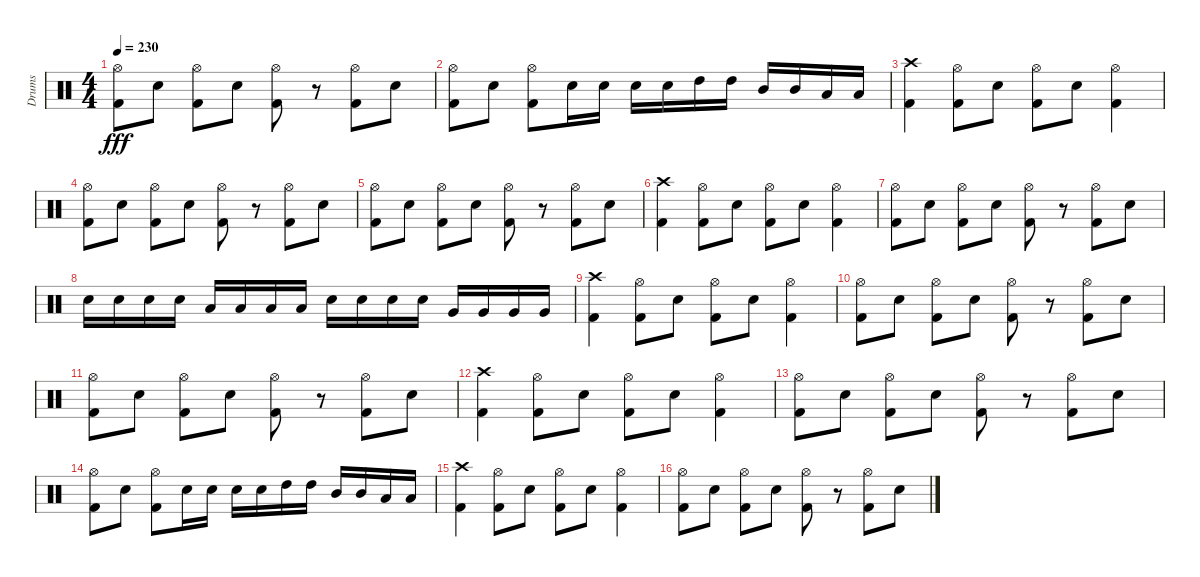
\track ("Drums" "Drums") {instrument percussion}
\staff {score}
\articulation defaults
\ts (4 4)
\tempo 230
\clef neutral
\ks c
("Hi-Hat (open)" "Kick (hit) 2").8{dy fff} "Electric Snare (hit)".8 ("Hi-Hat (open)" "Kick (hit) 2").8 "Electric Snare (hit)".8 ("Hi-Hat (open)" "Kick (hit) 2").8 r.8 ("Hi-Hat (open)" "Kick (hit) 2").8 "Electric Snare (hit)".8 |
("Hi-Hat (open)" "Kick (hit) 2").8 "Electric Snare (hit)".8 ("Hi-Hat (open)" "Kick (hit) 2").8 "Electric Snare (hit)".16 "Electric Snare (hit)".16 "Electric Snare (hit)".16 "Electric Snare (hit)".16 "High Tom (hit)".16 "High Tom (hit)".16 "Mid Tom (hit)".16 "Mid Tom (hit)".16 "Low Tom (hit)".16 "Low Tom (hit)".16 |
("Crash high (hit)" "Kick (hit) 2").4 ("Hi-Hat (open)" "Kick (hit) 2").8 "Electric Snare (hit)".8 ("Hi-Hat (open)" "Kick (hit) 2").8 "Electric Snare (hit)".8 ("Hi-Hat (open)" "Kick (hit) 2").4 |
("Hi-Hat (open)" "Kick (hit) 2").8 "Electric Snare (hit)".8 ("Hi-Hat (open)" "Kick (hit) 2").8 "Electric Snare (hit)".8 ("Hi-Hat (open)" "Kick (hit) 2").8 r.8 ("Hi-Hat (open)" "Kick (hit) 2").8 "Electric Snare (hit)".8 |
("Hi-Hat (open)" "Kick (hit) 2").8 "Electric Snare (hit)".8 ("Hi-Hat (open)" "Kick (hit) 2").8 "Electric Snare (hit)".8 ("Hi-Hat (open)" "Kick (hit) 2").8 r.8 ("Hi-Hat (open)" "Kick (hit) 2").8 "Electric Snare (hit)".8 |
("Crash high (hit)" "Kick (hit) 2").4 ("Hi-Hat (open)" "Kick (hit) 2").8 "Electric Snare (hit)".8 ("Hi-Hat (open)" "Kick (hit) 2").8 "Electric Snare (hit)".8 ("Hi-Hat (open)" "Kick (hit) 2").4 |
("Hi-Hat (open)" "Kick (hit) 2").8 "Electric Snare (hit)".8 ("Hi-Hat (open)" "Kick (hit) 2").8 "Electric Snare (hit)".8 ("Hi-Hat (open)" "Kick (hit) 2").8 r.8 ("Hi-Hat (open)" "Kick (hit) 2").8 "Electric Snare (hit)".8 |
"Electric Snare (hit)".16 "Electric Snare (hit)".16 "Electric Snare (hit)".16 "Electric Snare (hit)".16 "Low Tom (hit)".16 "Low Tom (hit)".16 "Low Tom (hit)".16 "Low Tom (hit)".16 "Electric Snare (hit)".16 "Electric Snare (hit)".16 "Electric Snare (hit)".16 "Electric Snare (hit)".16 "Very Low Tom (hit)".16 "Very Low Tom (hit)".16 "Very Low Tom (hit)".16 "Very Low Tom (hit)".16 |
("Crash high (hit)" "Kick (hit) 2").4 ("Hi-Hat (open)" "Kick (hit) 2").8 "Electric Snare (hit)".8 ("Hi-Hat (open)" "Kick (hit) 2").8 "Electric Snare (hit)".8 ("Hi-Hat (open)" "Kick (hit) 2").4 |
("Hi-Hat (open)" "Kick (hit) 2").8 "Electric Snare (hit)".8 ("Hi-Hat (open)" "Kick (hit) 2").8 "Electric Snare (hit)".8 ("Hi-Hat (open)" "Kick (hit) 2").8 r.8 ("Hi-Hat (open)" "Kick (hit) 2").8 "Electric Snare (hit)".8 |
("Hi-Hat (open)" "Kick (hit) 2").8 "Electric Snare (hit)".8 ("Hi-Hat (open)" "Kick (hit) 2").8 "Electric Snare (hit)".8 ("Hi-Hat (open)" "Kick (hit) 2").8 r.8 ("Hi-Hat (open)" "Kick (hit) 2").8 "Electric Snare (hit)".8 |
("Crash high (hit)" "Kick (hit) 2").4 ("Hi-Hat (open)" "Kick (hit) 2").8 "Electric Snare (hit)".8 ("Hi-Hat (open)" "Kick (hit) 2").8 "Electric Snare (hit)".8 ("Hi-Hat (open)" "Kick (hit) 2").4 |
("Hi-Hat (open)" "Kick (hit) 2").8 "Electric Snare (hit)".8 ("Hi-Hat (open)" "Kick (hit) 2").8 "Electric Snare (hit)".8 ("Hi-Hat (open)" "Kick (hit) 2").8 r.8 ("Hi-Hat (open)" "Kick (hit) 2").8 "Electric Snare (hit)".8 |
("Hi-Hat (open)" "Kick (hit) 2").8 "Electric Snare (hit)".8 ("Hi-Hat (open)" "Kick (hit) 2").8 "Electric Snare (hit)".16 "Electric Snare (hit)".16 "Electric Snare (hit)".16 "Electric Snare (hit)".16 "High Tom (hit)".16 "High Tom (hit)".16 "Mid Tom (hit)".16 "Mid Tom (hit)".16 "Low Tom (hit)".16 "Low Tom (hit)".16 |
("Crash high (hit)" "Kick (hit) 2").4 ("Hi-Hat (open)" "Kick (hit) 2").8 "Electric Snare (hit)".8 ("Hi-Hat (open)" "Kick (hit) 2").8 "Electric Snare (hit)".8 ("Hi-Hat (open)" "Kick (hit) 2").4 |
("Hi-Hat (open)" "Kick (hit) 2").8 "Electric Snare (hit)".8 ("Hi-Hat (open)" "Kick (hit) 2").8 "Electric Snare (hit)".8 ("Hi-Hat (open)" "Kick (hit) 2").8 r.8 ("Hi-Hat (open)" "Kick (hit) 2").8 "Electric Snare (hit)".8
